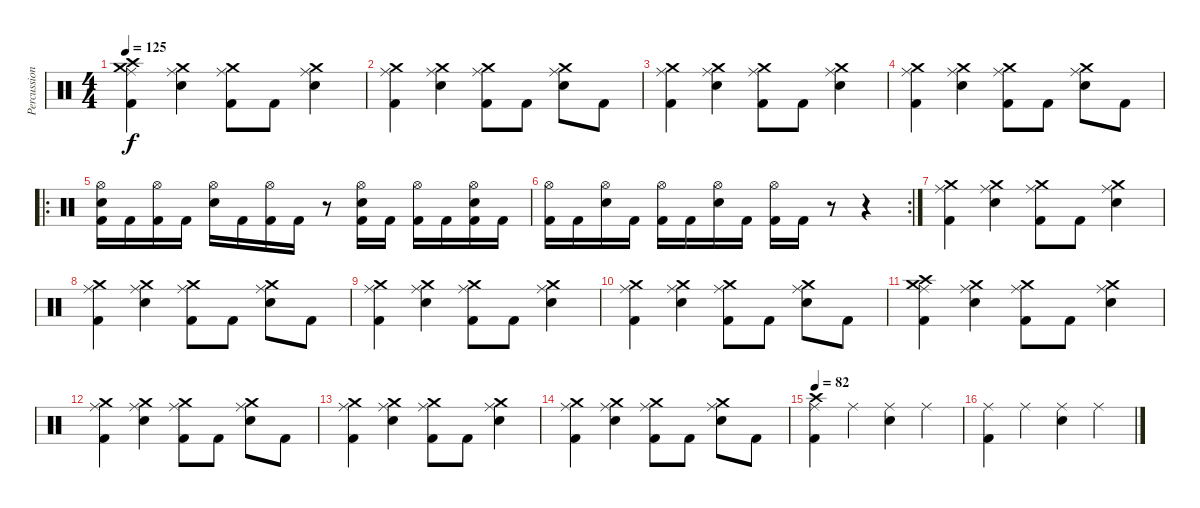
\track ("Percussions" "Percussion") {instrument percussion}
\staff {score}
\articulation defaults
\ts (4 4)
\tempo 125
\clef neutral
\ks c
("Crash high (hit)" "Ride (middle)" "Crash medium (hit)" "Kick (hit) 2").4{dy f} ("Ride (middle)" "Crash medium (hit)" "Electric Snare (hit)").4 ("Ride (middle)" "Crash medium (hit)" "Kick (hit) 2").8 "Kick (hit) 2".8 ("Ride (middle)" "Crash medium (hit)" "Electric Snare (hit)").4 |
("Ride (middle)" "Crash medium (hit)" "Kick (hit) 2").4 ("Ride (middle)" "Crash medium (hit)" "Electric Snare (hit)").4 ("Ride (middle)" "Crash medium (hit)" "Kick (hit) 2").8 "Kick (hit) 2".8 ("Ride (middle)" "Crash medium (hit)" "Electric Snare (hit)").8 "Kick (hit) 2".8 |
("Ride (middle)" "Crash medium (hit)" "Kick (hit) 2").4 ("Ride (middle)" "Crash medium (hit)" "Electric Snare (hit)").4 ("Ride (middle)" "Crash medium (hit)" "Kick (hit) 2").8 "Kick (hit) 2".8 ("Ride (middle)" "Crash medium (hit)" "Electric Snare (hit)").4 |
("Ride (middle)" "Crash medium (hit)" "Kick (hit) 2").4 ("Ride (middle)" "Crash medium (hit)" "Electric Snare (hit)").4 ("Ride (middle)" "Crash medium (hit)" "Kick (hit) 2").8 "Kick (hit) 2".8 ("Ride (middle)" "Crash medium (hit)" "Electric Snare (hit)").8 "Kick (hit) 2".8 |
\ro
("Hi-Hat (open)" "Electric Snare (hit)" "Kick (hit) 2").16 "Kick (hit) 2".16 ("Hi-Hat (open)" "Kick (hit) 2").16 "Kick (hit) 2".16 ("Hi-Hat (open)" "Electric Snare (hit)").16 "Kick (hit) 2".16 ("Hi-Hat (open)" "Kick (hit) 2").16 "Kick (hit) 2".16 r.8 ("Hi-Hat (open)" "Electric Snare (hit)" "Kick (hit) 2").16 "Kick (hit) 2".16 ("Hi-Hat (open)" "Kick (hit) 2").16 "Kick (hit) 2".16 ("Hi-Hat (open)" "Electric Snare (hit)" "Kick (hit) 2").16 "Kick (hit) 2".16 |
\rc 2
("Hi-Hat (open)" "Kick (hit) 2").16 "Kick (hit) 2".16 ("Hi-Hat (open)" "Electric Snare (hit)").16 "Kick (hit) 2".16 ("Hi-Hat (open)" "Kick (hit) 2").16 "Kick (hit) 2".16 ("Hi-Hat (open)" "Electric Snare (hit)").16 "Kick (hit) 2".16 ("Hi-Hat (open)" "Kick (hit) 2").16 "Kick (hit) 2".16 r.8 r.4 |
("Ride (middle)" "Crash medium (hit)" "Kick (hit) 2").4 ("Ride (middle)" "Crash medium (hit)" "Electric Snare (hit)").4 ("Ride (middle)" "Crash medium (hit)" "Kick (hit) 2").8 "Kick (hit) 2".8 ("Ride (middle)" "Crash medium (hit)" "Electric Snare (hit)").4 |
("Ride (middle)" "Crash medium (hit)" "Kick (hit) 2").4 ("Ride (middle)" "Crash medium (hit)" "Electric Snare (hit)").4 ("Ride (middle)" "Crash medium (hit)" "Kick (hit) 2").8 "Kick (hit) 2".8 ("Ride (middle)" "Crash medium (hit)" "Electric Snare (hit)").8 "Kick (hit) 2".8 |
("Ride (middle)" "Crash medium (hit)" "Kick (hit) 2").4 ("Ride (middle)" "Crash medium (hit)" "Electric Snare (hit)").4 ("Ride (middle)" "Crash medium (hit)" "Kick (hit) 2").8 "Kick (hit) 2".8 ("Ride (middle)" "Crash medium (hit)" "Electric Snare (hit)").4 |
("Ride (middle)" "Crash medium (hit)" "Kick (hit) 2").4 ("Ride (middle)" "Crash medium (hit)" "Electric Snare (hit)").4 ("Ride (middle)" "Crash medium (hit)" "Kick (hit) 2").8 "Kick (hit) 2".8 ("Ride (middle)" "Crash medium (hit)" "Electric Snare (hit)").8 "Kick (hit) 2".8 |
("Crash high (hit)" "Ride (middle)" "Crash medium (hit)" "Kick (hit) 2").4 ("Ride (middle)" "Crash medium (hit)" "Electric Snare (hit)").4 ("Ride (middle)" "Crash medium (hit)" "Kick (hit) 2").8 "Kick (hit) 2".8 ("Ride (middle)" "Crash medium (hit)" "Electric Snare (hit)").4 |
("Ride (middle)" "Crash medium (hit)" "Kick (hit) 2").4 ("Ride (middle)" "Crash medium (hit)" "Electric Snare (hit)").4 ("Ride (middle)" "Crash medium (hit)" "Kick (hit) 2").8 "Kick (hit) 2".8 ("Ride (middle)" "Crash medium (hit)" "Electric Snare (hit)").8 "Kick (hit) 2".8 |
("Ride (middle)" "Crash medium (hit)" "Kick (hit) 2").4 ("Ride (middle)" "Crash medium (hit)" "Electric Snare (hit)").4 ("Ride (middle)" "Crash medium (hit)" "Kick (hit) 2").8 "Kick (hit) 2".8 ("Ride (middle)" "Crash medium (hit)" "Electric Snare (hit)").4 |
("Ride (middle)" "Crash medium (hit)" "Kick (hit) 2").4 ("Ride (middle)" "Crash medium (hit)" "Electric Snare (hit)").4 ("Ride (middle)" "Crash medium (hit)" "Kick (hit) 2").8 "Kick (hit) 2".8 ("Ride (middle)" "Crash medium (hit)" "Electric Snare (hit)").8 "Kick (hit) 2".8 |
\tempo 82
("Crash high (hit)" "Ride (middle)" "Kick (hit) 2").4 "Ride (middle)".4 ("Ride (middle)" "Electric Snare (hit)").4 "Ride (middle)".4 |
("Ride (middle)" "Kick (hit) 2").4 "Ride (middle)".4 ("Ride (middle)" "Electric Snare (hit)").4 "Ride (middle)".4
